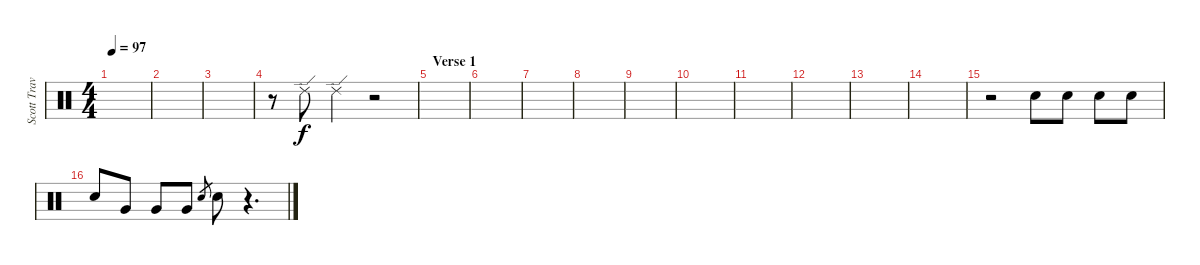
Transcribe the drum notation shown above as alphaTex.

\track ("Scott Travis" "Scott Trav") {instrument percussion}
\staff {score}
\articulation defaults
\ts (4 4)
\tempo 97
\clef neutral
\ks c
|
|
|
r.8 "Ride (edge) 2".8 "Ride (edge) 2".4 r.2 |
\section ("" "Verse 1")
|
|
|
|
|
|
|
|
|
|
r.2 "Snare (hit) 2".8 "Snare (hit) 2".8 "Snare (hit) 2".8 "Snare (hit) 2".8 |
"Snare (hit) 2".8 "Very Low Tom (hit)".8 "Very Low Tom (hit)".8 "Very Low Tom (hit)".8 "Snare (hit) 2".8{gr} "Snare (hit) 2".8 r.4{d}
